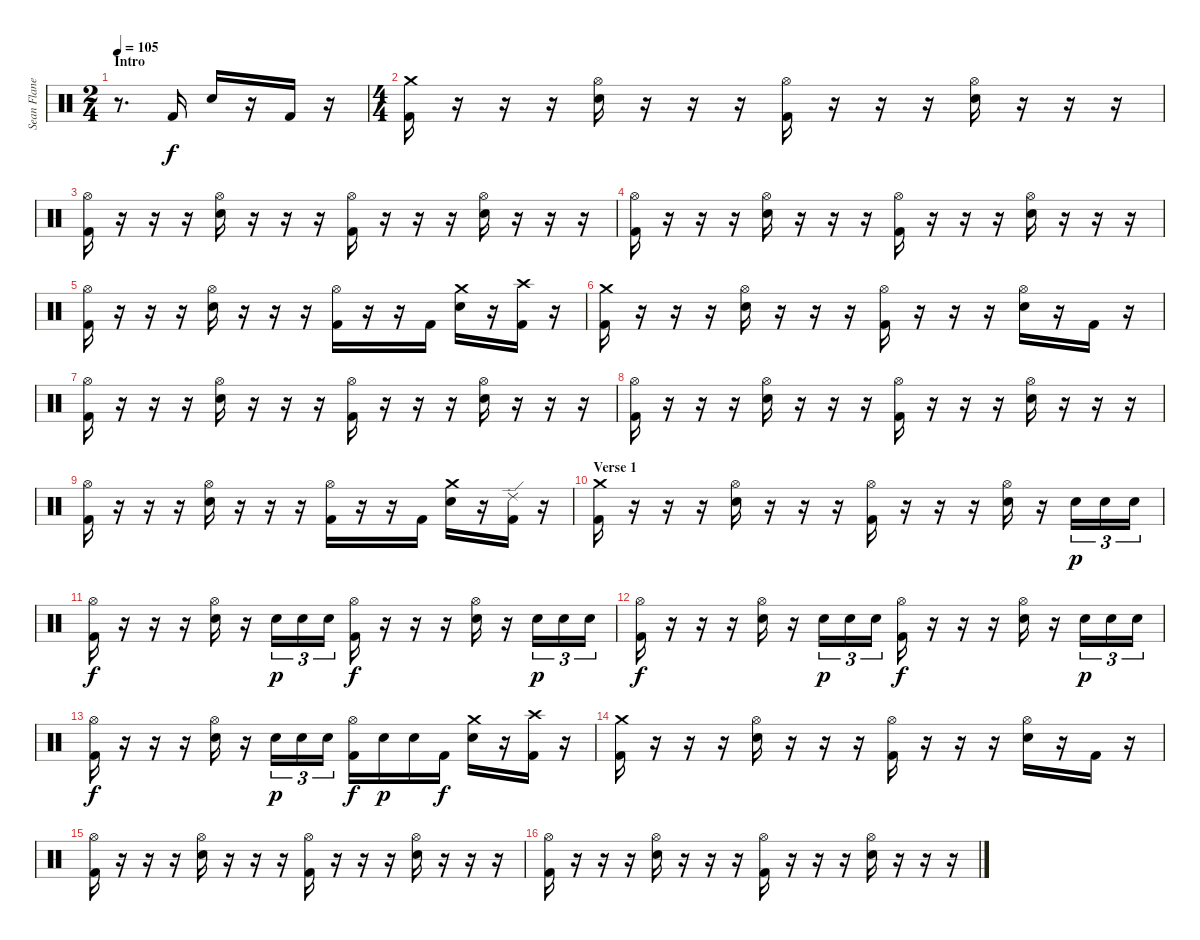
\track ("Sean Flanegan [Drums]" "Sean Flane") {instrument percussion}
\staff {score}
\articulation defaults
\ts (2 4)
\section ("" "Intro")
\tempo 105
\clef neutral
\ks c
r.8{d dy f} "Kick (hit) 2".16 "Electric Snare (hit)".16 r.16 "Kick (hit) 2".16 r.16 |
\ts (4 4)
("Crash medium (hit)" "Kick (hit) 2").16 r.16 r.16 r.16 ("Hi-Hat (open)" "Electric Snare (hit)").16 r.16 r.16 r.16 ("Hi-Hat (open)" "Kick (hit) 2").16 r.16 r.16 r.16 ("Hi-Hat (open)" "Electric Snare (hit)").16 r.16 r.16 r.16 |
("Hi-Hat (open)" "Kick (hit) 2").16 r.16 r.16 r.16 ("Hi-Hat (open)" "Electric Snare (hit)").16 r.16 r.16 r.16 ("Hi-Hat (open)" "Kick (hit) 2").16 r.16 r.16 r.16 ("Hi-Hat (open)" "Electric Snare (hit)").16 r.16 r.16 r.16 |
("Hi-Hat (open)" "Kick (hit) 2").16 r.16 r.16 r.16 ("Hi-Hat (open)" "Electric Snare (hit)").16 r.16 r.16 r.16 ("Hi-Hat (open)" "Kick (hit) 2").16 r.16 r.16 r.16 ("Hi-Hat (open)" "Electric Snare (hit)").16 r.16 r.16 r.16 |
("Hi-Hat (open)" "Kick (hit) 2").16 r.16 r.16 r.16 ("Hi-Hat (open)" "Electric Snare (hit)").16 r.16 r.16 r.16 ("Hi-Hat (open)" "Kick (hit) 2").16 r.16 r.16 "Kick (hit) 2".16 ("Crash medium (hit)" "Electric Snare (hit)").16 r.16 ("Crash high (hit)" "Kick (hit) 2").16 r.16 |
("Crash medium (hit)" "Kick (hit) 2").16 r.16 r.16 r.16 ("Hi-Hat (open)" "Electric Snare (hit)").16 r.16 r.16 r.16 ("Hi-Hat (open)" "Kick (hit) 2").16 r.16 r.16 r.16 ("Hi-Hat (open)" "Electric Snare (hit)").16 r.16 "Kick (hit) 2".16 r.16 |
("Hi-Hat (open)" "Kick (hit) 2").16 r.16 r.16 r.16 ("Hi-Hat (open)" "Electric Snare (hit)").16 r.16 r.16 r.16 ("Hi-Hat (open)" "Kick (hit) 2").16 r.16 r.16 r.16 ("Hi-Hat (open)" "Electric Snare (hit)").16 r.16 r.16 r.16 |
("Hi-Hat (open)" "Kick (hit) 2").16 r.16 r.16 r.16 ("Hi-Hat (open)" "Electric Snare (hit)").16 r.16 r.16 r.16 ("Hi-Hat (open)" "Kick (hit) 2").16 r.16 r.16 r.16 ("Hi-Hat (open)" "Electric Snare (hit)").16 r.16 r.16 r.16 |
("Hi-Hat (open)" "Kick (hit) 2").16 r.16 r.16 r.16 ("Hi-Hat (open)" "Electric Snare (hit)").16 r.16 r.16 r.16 ("Hi-Hat (open)" "Kick (hit) 2").16 r.16 r.16 "Kick (hit) 2".16 ("Crash medium (hit)" "Electric Snare (hit)").16 r.16 ("Ride (edge) 2" "Kick (hit) 2").16 r.16 |
\section ("" "Verse 1")
("Crash medium (hit)" "Kick (hit) 2").16 r.16 r.16 r.16 ("Hi-Hat (open)" "Electric Snare (hit)").16 r.16 r.16 r.16 ("Hi-Hat (open)" "Kick (hit) 2").16 r.16 r.16 r.16 ("Hi-Hat (open)" "Electric Snare (hit)").16 r.16 "Electric Snare (hit)".16{tu (3 2) dy p} "Electric Snare (hit)".16{tu (3 2)} "Electric Snare (hit)".16{tu (3 2)} |
("Hi-Hat (open)" "Kick (hit) 2").16{dy f} r.16 r.16 r.16 ("Hi-Hat (open)" "Electric Snare (hit)").16 r.16 "Electric Snare (hit)".16{tu (3 2) dy p} "Electric Snare (hit)".16{tu (3 2)} "Electric Snare (hit)".16{tu (3 2)} ("Hi-Hat (open)" "Kick (hit) 2").16{dy f} r.16 r.16 r.16 ("Hi-Hat (open)" "Electric Snare (hit)").16 r.16 "Electric Snare (hit)".16{tu (3 2) dy p} "Electric Snare (hit)".16{tu (3 2)} "Electric Snare (hit)".16{tu (3 2)} |
("Hi-Hat (open)" "Kick (hit) 2").16{dy f} r.16 r.16 r.16 ("Hi-Hat (open)" "Electric Snare (hit)").16 r.16 "Electric Snare (hit)".16{tu (3 2) dy p} "Electric Snare (hit)".16{tu (3 2)} "Electric Snare (hit)".16{tu (3 2)} ("Hi-Hat (open)" "Kick (hit) 2").16{dy f} r.16 r.16 r.16 ("Hi-Hat (open)" "Electric Snare (hit)").16 r.16 "Electric Snare (hit)".16{tu (3 2) dy p} "Electric Snare (hit)".16{tu (3 2)} "Electric Snare (hit)".16{tu (3 2)} |
("Hi-Hat (open)" "Kick (hit) 2").16{dy f} r.16 r.16 r.16 ("Hi-Hat (open)" "Electric Snare (hit)").16 r.16 "Electric Snare (hit)".16{tu (3 2) dy p} "Electric Snare (hit)".16{tu (3 2)} "Electric Snare (hit)".16{tu (3 2)} ("Hi-Hat (open)" "Kick (hit) 2").16{dy f} "Electric Snare (hit)".16{dy p} "Electric Snare (hit)".16 "Kick (hit) 2".16{dy f} ("Crash medium (hit)" "Electric Snare (hit)").16 r.16 ("Crash high (hit)" "Kick (hit) 2").16 r.16 |
("Crash medium (hit)" "Kick (hit) 2").16 r.16 r.16 r.16 ("Hi-Hat (open)" "Electric Snare (hit)").16 r.16 r.16 r.16 ("Hi-Hat (open)" "Kick (hit) 2").16 r.16 r.16 r.16 ("Hi-Hat (open)" "Electric Snare (hit)").16 r.16 "Kick (hit) 2".16 r.16 |
("Hi-Hat (open)" "Kick (hit) 2").16 r.16 r.16 r.16 ("Hi-Hat (open)" "Electric Snare (hit)").16 r.16 r.16 r.16 ("Hi-Hat (open)" "Kick (hit) 2").16 r.16 r.16 r.16 ("Hi-Hat (open)" "Electric Snare (hit)").16 r.16 r.16 r.16 |
("Hi-Hat (open)" "Kick (hit) 2").16 r.16 r.16 r.16 ("Hi-Hat (open)" "Electric Snare (hit)").16 r.16 r.16 r.16 ("Hi-Hat (open)" "Kick (hit) 2").16 r.16 r.16 r.16 ("Hi-Hat (open)" "Electric Snare (hit)").16 r.16 r.16 r.16
